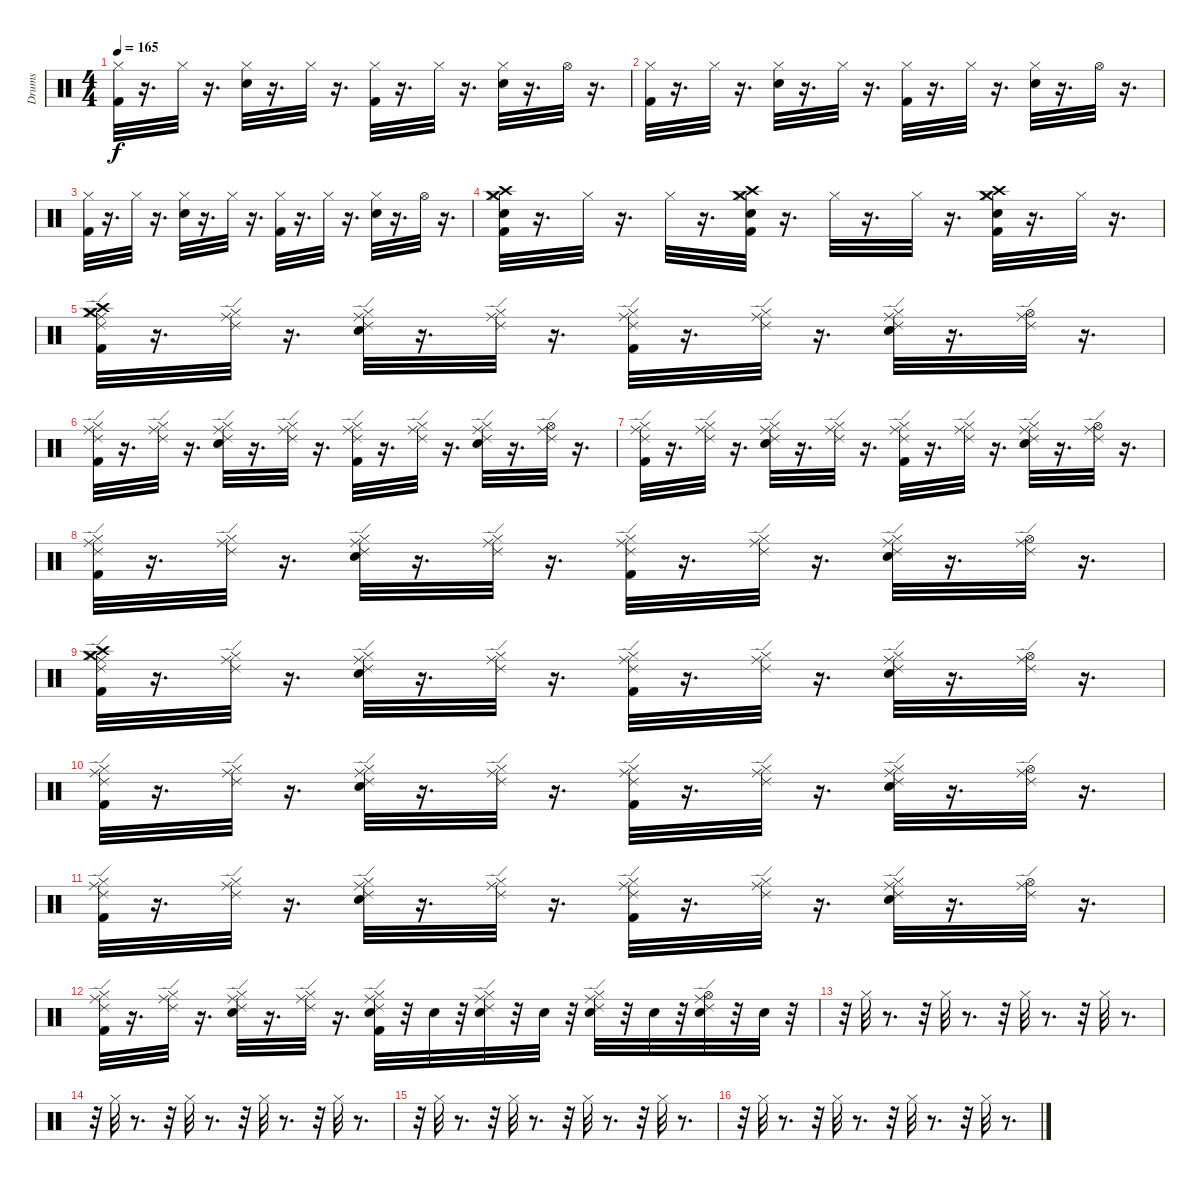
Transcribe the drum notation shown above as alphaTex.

\track ("Drums" "Drums") {instrument percussion}
\staff {score}
\articulation defaults
\ts (4 4)
\tempo 165
\clef neutral
\ks c
("Kick (hit) 2" "Hi-Hat (closed)").32{dy f} r.16{d} "Hi-Hat (closed)".32 r.16{d} ("Hi-Hat (closed)" "Electric Snare (hit)").32 r.16{d} "Hi-Hat (closed)".32 r.16{d} ("Kick (hit) 2" "Hi-Hat (closed)").32 r.16{d} "Hi-Hat (closed)".32 r.16{d} ("Electric Snare (hit)" "Hi-Hat (closed)").32 r.16{d} "Hi-Hat (open)".32 r.16{d} |
("Kick (hit) 2" "Hi-Hat (closed)").32 r.16{d} "Hi-Hat (closed)".32 r.16{d} ("Hi-Hat (closed)" "Electric Snare (hit)").32 r.16{d} "Hi-Hat (closed)".32 r.16{d} ("Kick (hit) 2" "Hi-Hat (closed)").32 r.16{d} "Hi-Hat (closed)".32 r.16{d} ("Electric Snare (hit)" "Hi-Hat (closed)").32 r.16{d} "Hi-Hat (open)".32 r.16{d} |
("Kick (hit) 2" "Hi-Hat (closed)").32 r.16{d} "Hi-Hat (closed)".32 r.16{d} ("Hi-Hat (closed)" "Electric Snare (hit)").32 r.16{d} "Hi-Hat (closed)".32 r.16{d} ("Kick (hit) 2" "Hi-Hat (closed)").32 r.16{d} "Hi-Hat (closed)".32 r.16{d} ("Electric Snare (hit)" "Hi-Hat (closed)").32 r.16{d} "Hi-Hat (open)".32 r.16{d} |
("Kick (hit) 2" "Electric Snare (hit)" "Crash medium (hit)" "Crash high (hit)" "Hi-Hat (closed)").32 r.16{d} "Hi-Hat (closed)".32 r.16{d} "Hi-Hat (closed)".32 r.16{d} ("Electric Snare (hit)" "Crash high (hit)" "Crash medium (hit)" "Hi-Hat (closed)" "Kick (hit) 2").32 r.16{d} "Hi-Hat (closed)".32 r.16{d} "Hi-Hat (closed)".32 r.16{d} ("Kick (hit) 2" "Electric Snare (hit)" "Crash high (hit)" "Crash medium (hit)" "Hi-Hat (closed)").32 r.16{d} "Hi-Hat (closed)".32 r.16{d} |
("Ride (edge) 2" "Ride (middle)" "Kick (hit) 2" "Hi-Hat (closed)" "Crash high (hit)" "Crash medium (hit)").32 r.16{d} ("Ride (edge) 2" "Ride (middle)" "Hi-Hat (closed)").32 r.16{d} ("Ride (edge) 2" "Ride (middle)" "Hi-Hat (closed)" "Electric Snare (hit)").32 r.16{d} ("Ride (edge) 2" "Ride (middle)" "Hi-Hat (closed)").32 r.16{d} ("Ride (edge) 2" "Ride (middle)" "Kick (hit) 2" "Hi-Hat (closed)").32 r.16{d} ("Ride (edge) 2" "Ride (middle)" "Hi-Hat (closed)").32 r.16{d} ("Ride (edge) 2" "Ride (middle)" "Electric Snare (hit)" "Hi-Hat (closed)").32 r.16{d} ("Ride (edge) 2" "Ride (middle)" "Hi-Hat (open)").32 r.16{d} |
("Ride (edge) 2" "Ride (middle)" "Kick (hit) 2" "Hi-Hat (closed)").32 r.16{d} ("Ride (edge) 2" "Ride (middle)" "Hi-Hat (closed)").32 r.16{d} ("Ride (edge) 2" "Ride (middle)" "Hi-Hat (closed)" "Electric Snare (hit)").32 r.16{d} ("Ride (edge) 2" "Hi-Hat (closed)" "Ride (middle)").32 r.16{d} ("Ride (middle)" "Ride (edge) 2" "Kick (hit) 2" "Hi-Hat (closed)").32 r.16{d} ("Ride (middle)" "Ride (edge) 2" "Hi-Hat (closed)").32 r.16{d} ("Ride (middle)" "Ride (edge) 2" "Electric Snare (hit)" "Hi-Hat (closed)").32 r.16{d} ("Ride (middle)" "Ride (edge) 2" "Hi-Hat (open)").32 r.16{d} |
("Kick (hit) 2" "Hi-Hat (closed)" "Ride (edge) 2" "Ride (middle)").32 r.16{d} ("Hi-Hat (closed)" "Ride (edge) 2" "Ride (middle)").32 r.16{d} ("Ride (edge) 2" "Ride (middle)" "Hi-Hat (closed)" "Electric Snare (hit)").32 r.16{d} ("Ride (edge) 2" "Hi-Hat (closed)" "Ride (middle)").32 r.16{d} ("Kick (hit) 2" "Ride (edge) 2" "Ride (middle)" "Hi-Hat (closed)").32 r.16{d} ("Hi-Hat (closed)" "Ride (edge) 2" "Ride (middle)").32 r.16{d} ("Electric Snare (hit)" "Ride (edge) 2" "Ride (middle)" "Hi-Hat (closed)").32 r.16{d} ("Hi-Hat (open)" "Ride (middle)" "Ride (edge) 2").32 r.16{d} |
("Hi-Hat (closed)" "Kick (hit) 2" "Ride (edge) 2" "Ride (middle)").32 r.16{d} ("Ride (middle)" "Hi-Hat (closed)" "Ride (edge) 2").32 r.16{d} ("Electric Snare (hit)" "Hi-Hat (closed)" "Ride (edge) 2" "Ride (middle)").32 r.16{d} ("Ride (edge) 2" "Ride (middle)" "Hi-Hat (closed)").32 r.16{d} ("Ride (middle)" "Kick (hit) 2" "Hi-Hat (closed)" "Ride (edge) 2").32 r.16{d} ("Ride (middle)" "Ride (edge) 2" "Hi-Hat (closed)").32 r.16{d} ("Electric Snare (hit)" "Hi-Hat (closed)" "Ride (middle)" "Ride (edge) 2").32 r.16{d} ("Hi-Hat (open)" "Ride (middle)" "Ride (edge) 2").32 r.16{d} |
("Kick (hit) 2" "Hi-Hat (closed)" "Crash high (hit)" "Crash medium (hit)" "Ride (middle)" "Ride (edge) 2").32 r.16{d} ("Ride (middle)" "Hi-Hat (closed)" "Ride (edge) 2").32 r.16{d} ("Ride (middle)" "Electric Snare (hit)" "Hi-Hat (closed)" "Ride (edge) 2").32 r.16{d} ("Ride (edge) 2" "Ride (middle)" "Hi-Hat (closed)").32 r.16{d} ("Ride (edge) 2" "Kick (hit) 2" "Ride (middle)" "Hi-Hat (closed)").32 r.16{d} ("Ride (edge) 2" "Hi-Hat (closed)" "Ride (middle)").32 r.16{d} ("Hi-Hat (closed)" "Electric Snare (hit)" "Ride (edge) 2" "Ride (middle)").32 r.16{d} ("Ride (edge) 2" "Ride (middle)" "Hi-Hat (open)").32 r.16{d} |
("Ride (edge) 2" "Kick (hit) 2" "Hi-Hat (closed)" "Ride (middle)").32 r.16{d} ("Ride (edge) 2" "Hi-Hat (closed)" "Ride (middle)").32 r.16{d} ("Ride (middle)" "Ride (edge) 2" "Hi-Hat (closed)" "Electric Snare (hit)").32 r.16{d} ("Hi-Hat (closed)" "Ride (middle)" "Ride (edge) 2").32 r.16{d} ("Hi-Hat (closed)" "Kick (hit) 2" "Ride (edge) 2" "Ride (middle)").32 r.16{d} ("Ride (middle)" "Hi-Hat (closed)" "Ride (edge) 2").32 r.16{d} ("Electric Snare (hit)" "Ride (middle)" "Ride (edge) 2" "Hi-Hat (closed)").32 r.16{d} ("Ride (middle)" "Hi-Hat (open)" "Ride (edge) 2").32 r.16{d} |
("Hi-Hat (closed)" "Kick (hit) 2" "Ride (middle)" "Ride (edge) 2").32 r.16{d} ("Ride (middle)" "Ride (edge) 2" "Hi-Hat (closed)").32 r.16{d} ("Ride (edge) 2" "Electric Snare (hit)" "Ride (middle)" "Hi-Hat (closed)").32 r.16{d} ("Ride (edge) 2" "Ride (middle)" "Hi-Hat (closed)").32 r.16{d} ("Hi-Hat (closed)" "Kick (hit) 2" "Ride (edge) 2" "Ride (middle)").32 r.16{d} ("Ride (edge) 2" "Ride (middle)" "Hi-Hat (closed)").32 r.16{d} ("Ride (middle)" "Electric Snare (hit)" "Ride (edge) 2" "Hi-Hat (closed)").32 r.16{d} ("Ride (edge) 2" "Hi-Hat (open)" "Ride (middle)").32 r.16{d} |
("Hi-Hat (closed)" "Ride (edge) 2" "Ride (middle)" "Kick (hit) 2").32 r.16{d} ("Hi-Hat (closed)" "Ride (edge) 2" "Ride (middle)").32 r.16{d} ("Hi-Hat (closed)" "Ride (edge) 2" "Ride (middle)" "Electric Snare (hit)").32 r.16{d} ("Ride (edge) 2" "Hi-Hat (closed)" "Ride (middle)").32 r.16{d} ("Ride (edge) 2" "Kick (hit) 2" "Ride (middle)" "Hi-Hat (closed)" "Electric Snare (hit)").32 r.32 "Electric Snare (hit)".32 r.32 ("Hi-Hat (closed)" "Ride (middle)" "Ride (edge) 2" "Electric Snare (hit)").32 r.32 "Electric Snare (hit)".32 r.32 ("Ride (edge) 2" "Ride (middle)" "Hi-Hat (closed)" "Electric Snare (hit)").32 r.32 "Electric Snare (hit)".32 r.32 ("Hi-Hat (open)" "Electric Snare (hit)" "Ride (middle)" "Ride (edge) 2").32 r.32 "Electric Snare (hit)".32 r.32 |
r.32 "Hi-Hat (closed)".32 r.8{d} r.32 "Hi-Hat (closed)".32 r.8{d} r.32 "Hi-Hat (closed)".32 r.8{d} r.32 "Hi-Hat (closed)".32 r.8{d} |
r.32 "Hi-Hat (closed)".32 r.8{d} r.32 "Hi-Hat (closed)".32 r.8{d} r.32 "Hi-Hat (closed)".32 r.8{d} r.32 "Hi-Hat (closed)".32 r.8{d} |
r.32 "Hi-Hat (closed)".32 r.8{d} r.32 "Hi-Hat (closed)".32 r.8{d} r.32 "Hi-Hat (closed)".32 r.8{d} r.32 "Hi-Hat (closed)".32 r.8{d} |
r.32 "Hi-Hat (closed)".32 r.8{d} r.32 "Hi-Hat (closed)".32 r.8{d} r.32 "Hi-Hat (closed)".32 r.8{d} r.32 "Hi-Hat (closed)".32 r.8{d}
